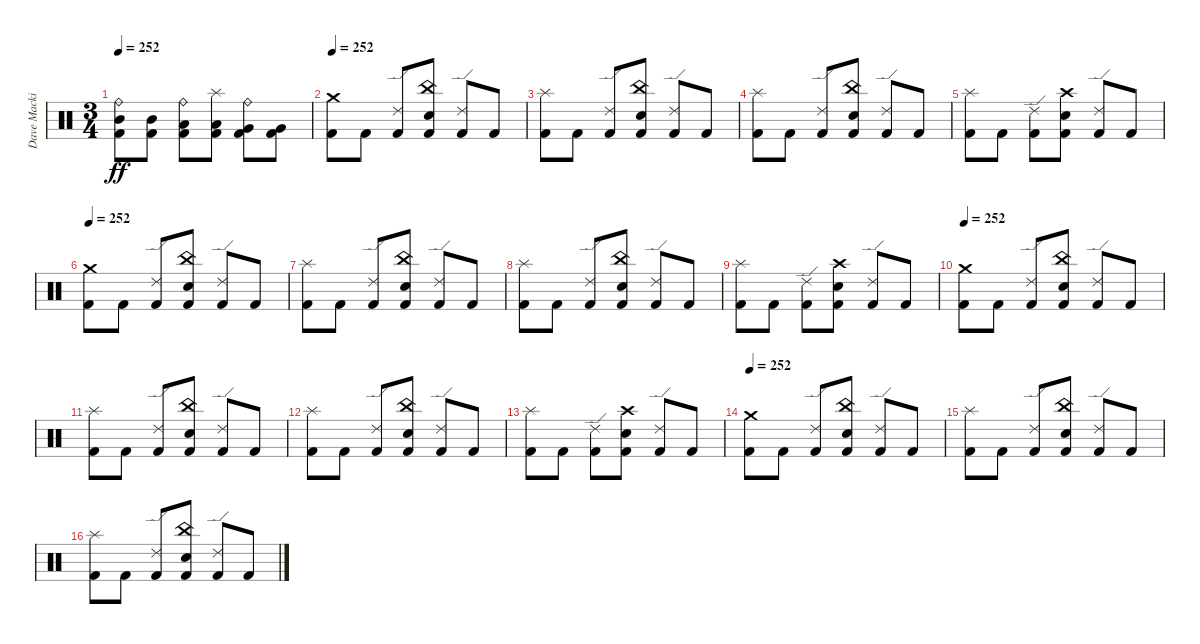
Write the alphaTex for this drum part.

\track ("Dave Mackintosh" "Dave Macki") {instrument percussion}
\staff {score}
\articulation defaults
\ts (3 4)
\tempo 252
\clef neutral
\ks c
("Ride (bell)" "Mid Tom (hit)" "Kick (hit) 2").8{dy ff} ("Mid Tom (hit)" "Kick (hit) 2").8 ("Ride (bell)" "Low Tom (hit)" "Kick (hit) 2").8 ("Splash (hit)" "Low Tom (hit)" "Kick (hit) 2").8 ("Ride (bell)" "Very Low Tom (hit)" "Kick (hit) 2").8 ("Very Low Tom (hit)" "Kick (hit) 2").8 |
\tempo 252
("Crash medium (hit)" "Kick (hit) 2").8 "Kick (hit) 2".8 ("Ride (edge) 2" "Kick (hit) 2").8 ("China (hit)" "Electric Snare (hit)" "Kick (hit) 2").8 ("Ride (edge) 2" "Kick (hit) 2").8 "Kick (hit) 2".8 |
("Splash (hit)" "Kick (hit) 2").8 "Kick (hit) 2".8 ("Ride (edge) 2" "Kick (hit) 2").8 ("China (hit)" "Electric Snare (hit)" "Kick (hit) 2").8 ("Ride (edge) 2" "Kick (hit) 2").8 "Kick (hit) 2".8 |
("Splash (hit)" "Kick (hit) 2").8 "Kick (hit) 2".8 ("Ride (edge) 2" "Kick (hit) 2").8 ("China (hit)" "Electric Snare (hit)" "Kick (hit) 2").8 ("Ride (edge) 2" "Kick (hit) 2").8 "Kick (hit) 2".8 |
("Splash (hit)" "Kick (hit) 2").8 "Kick (hit) 2".8 ("Ride (edge) 2" "Kick (hit) 2").8 ("Crash high (hit)" "Electric Snare (hit)" "Kick (hit) 2").8 ("Ride (edge) 2" "Kick (hit) 2").8 "Kick (hit) 2".8 |
\tempo 252
("Crash medium (hit)" "Kick (hit) 2").8 "Kick (hit) 2".8 ("Ride (edge) 2" "Kick (hit) 2").8 ("China (hit)" "Electric Snare (hit)" "Kick (hit) 2").8 ("Ride (edge) 2" "Kick (hit) 2").8 "Kick (hit) 2".8 |
("Splash (hit)" "Kick (hit) 2").8 "Kick (hit) 2".8 ("Ride (edge) 2" "Kick (hit) 2").8 ("China (hit)" "Electric Snare (hit)" "Kick (hit) 2").8 ("Ride (edge) 2" "Kick (hit) 2").8 "Kick (hit) 2".8 |
("Splash (hit)" "Kick (hit) 2").8 "Kick (hit) 2".8 ("Ride (edge) 2" "Kick (hit) 2").8 ("China (hit)" "Electric Snare (hit)" "Kick (hit) 2").8 ("Ride (edge) 2" "Kick (hit) 2").8 "Kick (hit) 2".8 |
("Splash (hit)" "Kick (hit) 2").8 "Kick (hit) 2".8 ("Ride (edge) 2" "Kick (hit) 2").8 ("Crash high (hit)" "Electric Snare (hit)" "Kick (hit) 2").8 ("Ride (edge) 2" "Kick (hit) 2").8 "Kick (hit) 2".8 |
\tempo 252
("Crash medium (hit)" "Kick (hit) 2").8 "Kick (hit) 2".8 ("Ride (edge) 2" "Kick (hit) 2").8 ("China (hit)" "Electric Snare (hit)" "Kick (hit) 2").8 ("Ride (edge) 2" "Kick (hit) 2").8 "Kick (hit) 2".8 |
("Splash (hit)" "Kick (hit) 2").8 "Kick (hit) 2".8 ("Ride (edge) 2" "Kick (hit) 2").8 ("China (hit)" "Electric Snare (hit)" "Kick (hit) 2").8 ("Ride (edge) 2" "Kick (hit) 2").8 "Kick (hit) 2".8 |
("Splash (hit)" "Kick (hit) 2").8 "Kick (hit) 2".8 ("Ride (edge) 2" "Kick (hit) 2").8 ("China (hit)" "Electric Snare (hit)" "Kick (hit) 2").8 ("Ride (edge) 2" "Kick (hit) 2").8 "Kick (hit) 2".8 |
("Splash (hit)" "Kick (hit) 2").8 "Kick (hit) 2".8 ("Ride (edge) 2" "Kick (hit) 2").8 ("Crash high (hit)" "Electric Snare (hit)" "Kick (hit) 2").8 ("Ride (edge) 2" "Kick (hit) 2").8 "Kick (hit) 2".8 |
\tempo 252
("Crash medium (hit)" "Kick (hit) 2").8 "Kick (hit) 2".8 ("Ride (edge) 2" "Kick (hit) 2").8 ("China (hit)" "Electric Snare (hit)" "Kick (hit) 2").8 ("Ride (edge) 2" "Kick (hit) 2").8 "Kick (hit) 2".8 |
("Splash (hit)" "Kick (hit) 2").8 "Kick (hit) 2".8 ("Ride (edge) 2" "Kick (hit) 2").8 ("China (hit)" "Electric Snare (hit)" "Kick (hit) 2").8 ("Ride (edge) 2" "Kick (hit) 2").8 "Kick (hit) 2".8 |
("Splash (hit)" "Kick (hit) 2").8 "Kick (hit) 2".8 ("Ride (edge) 2" "Kick (hit) 2").8 ("China (hit)" "Electric Snare (hit)" "Kick (hit) 2").8 ("Ride (edge) 2" "Kick (hit) 2").8 "Kick (hit) 2".8
